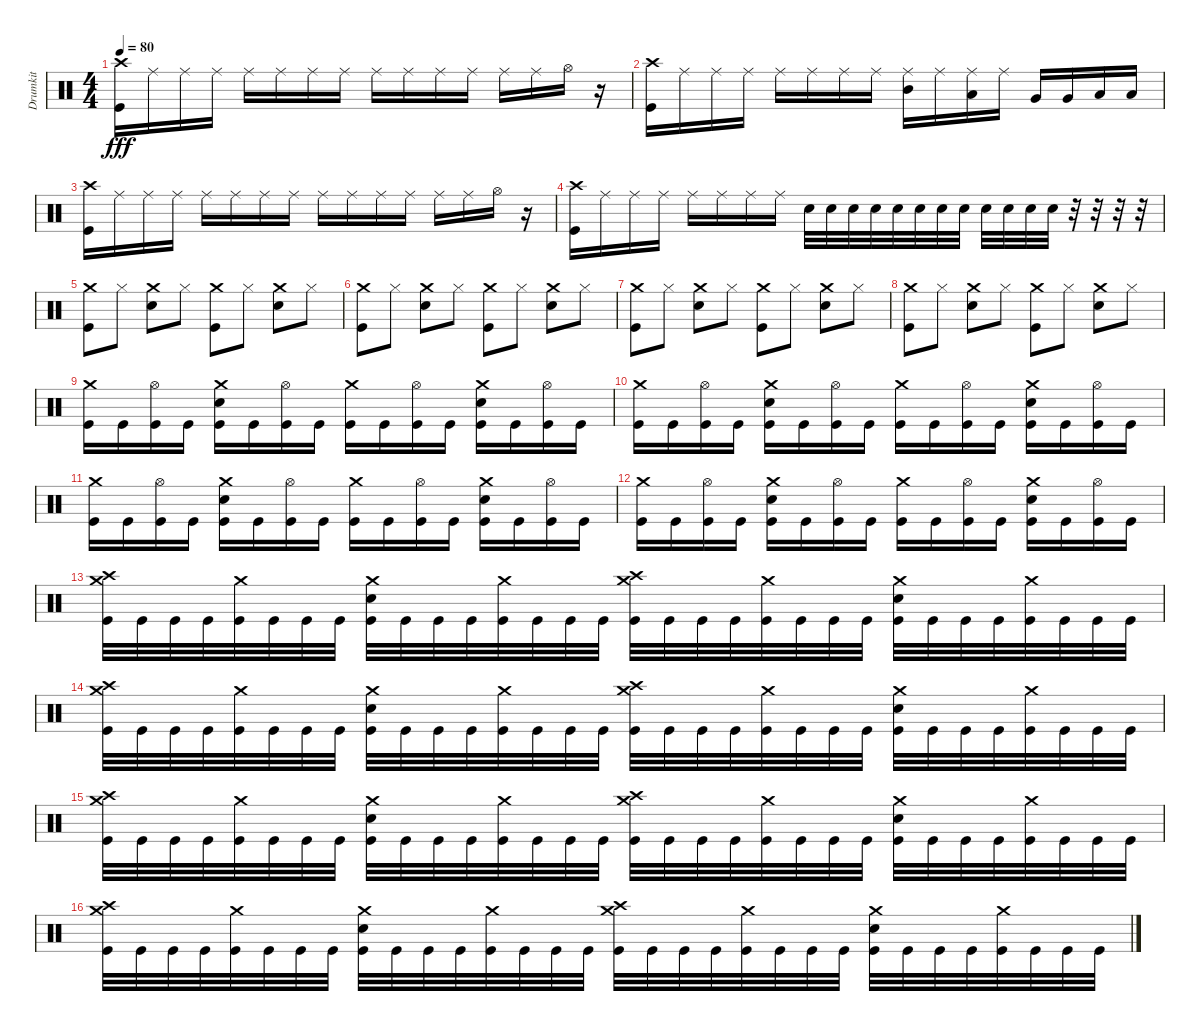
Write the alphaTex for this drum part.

\track ("Drumkit" "Drumkit") {instrument percussion}
\staff {score}
\articulation defaults
\ts (4 4)
\tempo 80
\clef neutral
\ks c
("Kick (hit)" "Crash high (hit)").16{dy fff} "Ride (middle)".16 "Ride (middle)".16 "Ride (middle)".16 "Ride (middle)".16 "Ride (middle)".16 "Ride (middle)".16 "Ride (middle)".16 "Ride (middle)".16 "Ride (middle)".16 "Ride (middle)".16 "Ride (middle)".16 "Ride (middle)".16 "Ride (middle)".16 "Hi-Hat (open)".16 r.16 |
("Kick (hit)" "Crash high (hit)").16 "Ride (middle)".16 "Ride (middle)".16 "Ride (middle)".16 "Ride (middle)".16 "Ride (middle)".16 "Ride (middle)".16 "Ride (middle)".16 ("Mid Tom (hit)" "Ride (middle)").16 "Ride (middle)".16 ("Low Tom (hit)" "Ride (middle)").16 "Ride (middle)".16 "Very Low Tom (hit)".16 "Very Low Tom (hit)".16 "Low Floor Tom (hit)".16 "Low Floor Tom (hit)".16 |
("Kick (hit)" "Crash high (hit)").16 "Ride (middle)".16 "Ride (middle)".16 "Ride (middle)".16 "Ride (middle)".16 "Ride (middle)".16 "Ride (middle)".16 "Ride (middle)".16 "Ride (middle)".16 "Ride (middle)".16 "Ride (middle)".16 "Ride (middle)".16 "Ride (middle)".16 "Ride (middle)".16 "Hi-Hat (open)".16 r.16 |
("Kick (hit)" "Crash high (hit)").16 "Ride (middle)".16 "Ride (middle)".16 "Ride (middle)".16 "Ride (middle)".16 "Ride (middle)".16 "Ride (middle)".16 "Ride (middle)".16 "Snare (hit) 2".32 "Snare (hit) 2".32 "Snare (hit) 2".32 "Snare (hit) 2".32 "Snare (hit) 2".32 "Snare (hit) 2".32 "Snare (hit) 2".32 "Snare (hit) 2".32 "Snare (hit) 2".32 "Snare (hit) 2".32 "Snare (hit) 2".32 "Snare (hit) 2".32 r.32 r.32 r.32 r.32 |
("Kick (hit)" "Crash medium (hit)").8 "Hi-Hat (closed)".8 ("Snare (hit) 2" "Crash medium (hit)").8 "Hi-Hat (closed)".8 ("Kick (hit)" "Crash medium (hit)").8 "Hi-Hat (closed)".8 ("Snare (hit) 2" "Crash medium (hit)").8 "Hi-Hat (closed)".8 |
("Kick (hit)" "Crash medium (hit)").8 "Hi-Hat (closed)".8 ("Snare (hit) 2" "Crash medium (hit)").8 "Hi-Hat (closed)".8 ("Kick (hit)" "Crash medium (hit)").8 "Hi-Hat (closed)".8 ("Snare (hit) 2" "Crash medium (hit)").8 "Hi-Hat (closed)".8 |
("Kick (hit)" "Crash medium (hit)").8 "Hi-Hat (closed)".8 ("Snare (hit) 2" "Crash medium (hit)").8 "Hi-Hat (closed)".8 ("Kick (hit)" "Crash medium (hit)").8 "Hi-Hat (closed)".8 ("Snare (hit) 2" "Crash medium (hit)").8 "Hi-Hat (closed)".8 |
("Kick (hit)" "Crash medium (hit)").8 "Hi-Hat (closed)".8 ("Snare (hit) 2" "Crash medium (hit)").8 "Hi-Hat (closed)".8 ("Kick (hit)" "Crash medium (hit)").8 "Hi-Hat (closed)".8 ("Snare (hit) 2" "Crash medium (hit)").8 "Hi-Hat (closed)".8 |
("Kick (hit)" "Crash medium (hit)").16 "Kick (hit)".16 ("Kick (hit)" "Hi-Hat (open)").16 "Kick (hit)".16 ("Kick (hit)" "Snare (hit) 2" "Crash medium (hit)").16 "Kick (hit)".16 ("Kick (hit)" "Hi-Hat (open)").16 "Kick (hit)".16 ("Kick (hit)" "Crash medium (hit)").16 "Kick (hit)".16 ("Kick (hit)" "Hi-Hat (open)").16 "Kick (hit)".16 ("Kick (hit)" "Crash medium (hit)" "Snare (hit) 2").16 "Kick (hit)".16 ("Kick (hit)" "Hi-Hat (open)").16 "Kick (hit)".16 |
("Kick (hit)" "Crash medium (hit)").16 "Kick (hit)".16 ("Kick (hit)" "Hi-Hat (open)").16 "Kick (hit)".16 ("Kick (hit)" "Snare (hit) 2" "Crash medium (hit)").16 "Kick (hit)".16 ("Kick (hit)" "Hi-Hat (open)").16 "Kick (hit)".16 ("Kick (hit)" "Crash medium (hit)").16 "Kick (hit)".16 ("Kick (hit)" "Hi-Hat (open)").16 "Kick (hit)".16 ("Kick (hit)" "Crash medium (hit)" "Snare (hit) 2").16 "Kick (hit)".16 ("Kick (hit)" "Hi-Hat (open)").16 "Kick (hit)".16 |
("Kick (hit)" "Crash medium (hit)").16 "Kick (hit)".16 ("Kick (hit)" "Hi-Hat (open)").16 "Kick (hit)".16 ("Kick (hit)" "Snare (hit) 2" "Crash medium (hit)").16 "Kick (hit)".16 ("Kick (hit)" "Hi-Hat (open)").16 "Kick (hit)".16 ("Kick (hit)" "Crash medium (hit)").16 "Kick (hit)".16 ("Kick (hit)" "Hi-Hat (open)").16 "Kick (hit)".16 ("Kick (hit)" "Crash medium (hit)" "Snare (hit) 2").16 "Kick (hit)".16 ("Kick (hit)" "Hi-Hat (open)").16 "Kick (hit)".16 |
("Kick (hit)" "Crash medium (hit)").16 "Kick (hit)".16 ("Kick (hit)" "Hi-Hat (open)").16 "Kick (hit)".16 ("Kick (hit)" "Snare (hit) 2" "Crash medium (hit)").16 "Kick (hit)".16 ("Kick (hit)" "Hi-Hat (open)").16 "Kick (hit)".16 ("Kick (hit)" "Crash medium (hit)").16 "Kick (hit)".16 ("Kick (hit)" "Hi-Hat (open)").16 "Kick (hit)".16 ("Kick (hit)" "Crash medium (hit)" "Snare (hit) 2").16 "Kick (hit)".16 ("Kick (hit)" "Hi-Hat (open)").16 "Kick (hit)".16 |
("Kick (hit)" "Crash medium (hit)" "Crash high (hit)").32 "Kick (hit)".32 "Kick (hit)".32 "Kick (hit)".32 ("Kick (hit)" "Crash medium (hit)").32 "Kick (hit)".32 "Kick (hit)".32 "Kick (hit)".32 ("Kick (hit)" "Crash medium (hit)" "Snare (hit) 2").32 "Kick (hit)".32 "Kick (hit)".32 "Kick (hit)".32 ("Kick (hit)" "Crash medium (hit)").32 "Kick (hit)".32 "Kick (hit)".32 "Kick (hit)".32 ("Kick (hit)" "Crash medium (hit)" "Crash high (hit)").32 "Kick (hit)".32 "Kick (hit)".32 "Kick (hit)".32 ("Kick (hit)" "Crash medium (hit)").32 "Kick (hit)".32 "Kick (hit)".32 "Kick (hit)".32 ("Kick (hit)" "Crash medium (hit)" "Snare (hit) 2").32 "Kick (hit)".32 "Kick (hit)".32 "Kick (hit)".32 ("Kick (hit)" "Crash medium (hit)").32 "Kick (hit)".32 "Kick (hit)".32 "Kick (hit)".32 |
("Kick (hit)" "Crash medium (hit)" "Crash high (hit)").32 "Kick (hit)".32 "Kick (hit)".32 "Kick (hit)".32 ("Kick (hit)" "Crash medium (hit)").32 "Kick (hit)".32 "Kick (hit)".32 "Kick (hit)".32 ("Kick (hit)" "Crash medium (hit)" "Snare (hit) 2").32 "Kick (hit)".32 "Kick (hit)".32 "Kick (hit)".32 ("Kick (hit)" "Crash medium (hit)").32 "Kick (hit)".32 "Kick (hit)".32 "Kick (hit)".32 ("Kick (hit)" "Crash medium (hit)" "Crash high (hit)").32 "Kick (hit)".32 "Kick (hit)".32 "Kick (hit)".32 ("Kick (hit)" "Crash medium (hit)").32 "Kick (hit)".32 "Kick (hit)".32 "Kick (hit)".32 ("Kick (hit)" "Crash medium (hit)" "Snare (hit) 2").32 "Kick (hit)".32 "Kick (hit)".32 "Kick (hit)".32 ("Kick (hit)" "Crash medium (hit)").32 "Kick (hit)".32 "Kick (hit)".32 "Kick (hit)".32 |
("Kick (hit)" "Crash medium (hit)" "Crash high (hit)").32 "Kick (hit)".32 "Kick (hit)".32 "Kick (hit)".32 ("Kick (hit)" "Crash medium (hit)").32 "Kick (hit)".32 "Kick (hit)".32 "Kick (hit)".32 ("Kick (hit)" "Crash medium (hit)" "Snare (hit) 2").32 "Kick (hit)".32 "Kick (hit)".32 "Kick (hit)".32 ("Kick (hit)" "Crash medium (hit)").32 "Kick (hit)".32 "Kick (hit)".32 "Kick (hit)".32 ("Kick (hit)" "Crash medium (hit)" "Crash high (hit)").32 "Kick (hit)".32 "Kick (hit)".32 "Kick (hit)".32 ("Kick (hit)" "Crash medium (hit)").32 "Kick (hit)".32 "Kick (hit)".32 "Kick (hit)".32 ("Kick (hit)" "Crash medium (hit)" "Snare (hit) 2").32 "Kick (hit)".32 "Kick (hit)".32 "Kick (hit)".32 ("Kick (hit)" "Crash medium (hit)").32 "Kick (hit)".32 "Kick (hit)".32 "Kick (hit)".32 |
("Kick (hit)" "Crash medium (hit)" "Crash high (hit)").32 "Kick (hit)".32 "Kick (hit)".32 "Kick (hit)".32 ("Kick (hit)" "Crash medium (hit)").32 "Kick (hit)".32 "Kick (hit)".32 "Kick (hit)".32 ("Kick (hit)" "Crash medium (hit)" "Snare (hit) 2").32 "Kick (hit)".32 "Kick (hit)".32 "Kick (hit)".32 ("Kick (hit)" "Crash medium (hit)").32 "Kick (hit)".32 "Kick (hit)".32 "Kick (hit)".32 ("Kick (hit)" "Crash medium (hit)" "Crash high (hit)").32 "Kick (hit)".32 "Kick (hit)".32 "Kick (hit)".32 ("Kick (hit)" "Crash medium (hit)").32 "Kick (hit)".32 "Kick (hit)".32 "Kick (hit)".32 ("Kick (hit)" "Crash medium (hit)" "Snare (hit) 2").32 "Kick (hit)".32 "Kick (hit)".32 "Kick (hit)".32 ("Kick (hit)" "Crash medium (hit)").32 "Kick (hit)".32 "Kick (hit)".32 "Kick (hit)".32
